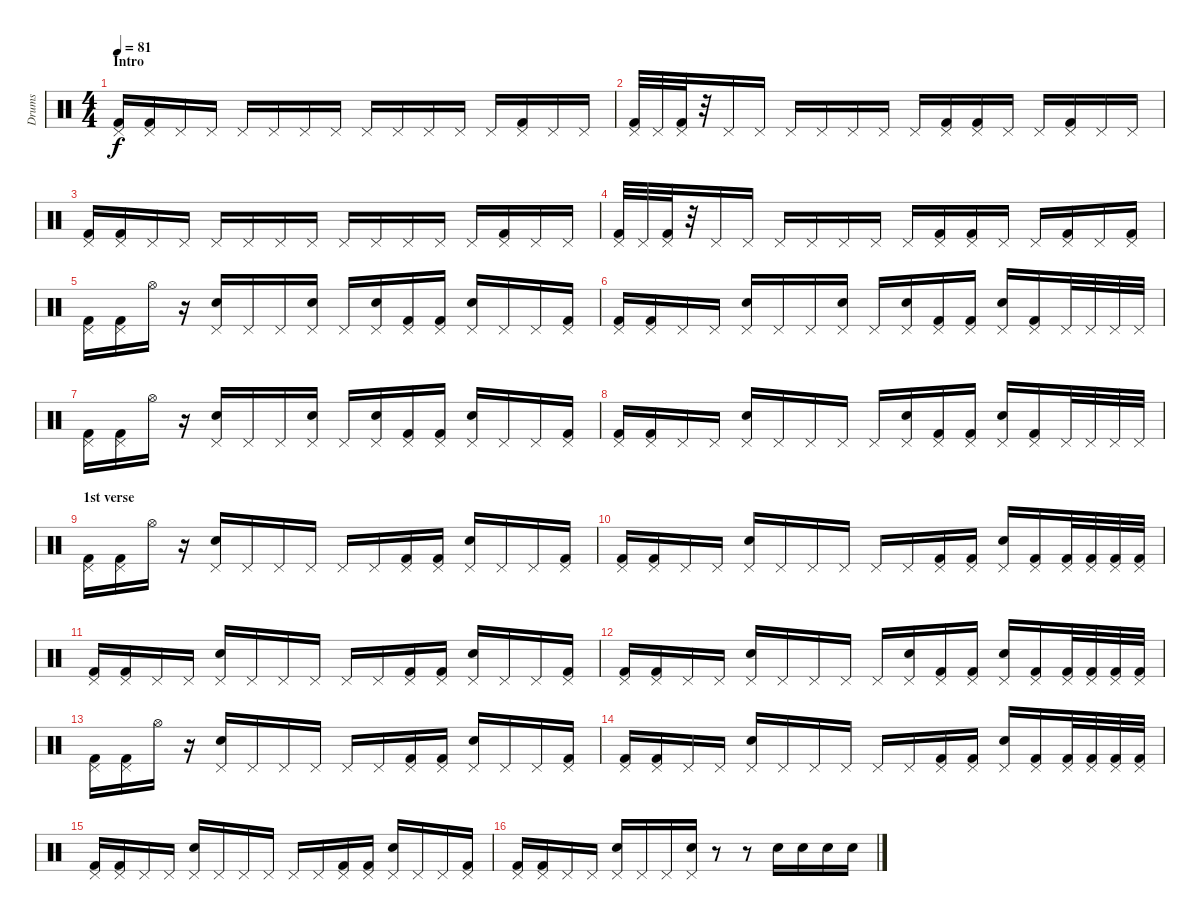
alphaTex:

\track ("Drums" "Drums") {instrument percussion}
\staff {score}
\articulation defaults
\ts (4 4)
\section ("" "Intro")
\tempo 81
\clef neutral
\ks c
("Kick (hit) 2" "Pedal Hi-Hat (hit)").16{dy f} ("Kick (hit) 2" "Pedal Hi-Hat (hit)").16 "Pedal Hi-Hat (hit)".16 "Pedal Hi-Hat (hit)".16 "Pedal Hi-Hat (hit)".16 "Pedal Hi-Hat (hit)".16 "Pedal Hi-Hat (hit)".16 "Pedal Hi-Hat (hit)".16 "Pedal Hi-Hat (hit)".16 "Pedal Hi-Hat (hit)".16 "Pedal Hi-Hat (hit)".16 "Pedal Hi-Hat (hit)".16 "Pedal Hi-Hat (hit)".16 ("Kick (hit) 2" "Pedal Hi-Hat (hit)").16 "Pedal Hi-Hat (hit)".16 "Pedal Hi-Hat (hit)".16 |
("Kick (hit) 2" "Pedal Hi-Hat (hit)").32 "Pedal Hi-Hat (hit)".32 ("Kick (hit) 2" "Pedal Hi-Hat (hit)").32 r.32 "Pedal Hi-Hat (hit)".16 "Pedal Hi-Hat (hit)".16 "Pedal Hi-Hat (hit)".16 "Pedal Hi-Hat (hit)".16 "Pedal Hi-Hat (hit)".16 "Pedal Hi-Hat (hit)".16 "Pedal Hi-Hat (hit)".16 ("Kick (hit) 2" "Pedal Hi-Hat (hit)").16 ("Kick (hit) 2" "Pedal Hi-Hat (hit)").16 "Pedal Hi-Hat (hit)".16 "Pedal Hi-Hat (hit)".16 ("Kick (hit) 2" "Pedal Hi-Hat (hit)").16 "Pedal Hi-Hat (hit)".16 "Pedal Hi-Hat (hit)".16 |
("Kick (hit) 2" "Pedal Hi-Hat (hit)").16 ("Kick (hit) 2" "Pedal Hi-Hat (hit)").16 "Pedal Hi-Hat (hit)".16 "Pedal Hi-Hat (hit)".16 "Pedal Hi-Hat (hit)".16 "Pedal Hi-Hat (hit)".16 "Pedal Hi-Hat (hit)".16 "Pedal Hi-Hat (hit)".16 "Pedal Hi-Hat (hit)".16 "Pedal Hi-Hat (hit)".16 "Pedal Hi-Hat (hit)".16 "Pedal Hi-Hat (hit)".16 "Pedal Hi-Hat (hit)".16 ("Kick (hit) 2" "Pedal Hi-Hat (hit)").16 "Pedal Hi-Hat (hit)".16 "Pedal Hi-Hat (hit)".16 |
("Kick (hit) 2" "Pedal Hi-Hat (hit)").32 "Pedal Hi-Hat (hit)".32 ("Kick (hit) 2" "Pedal Hi-Hat (hit)").32 r.32 "Pedal Hi-Hat (hit)".16 "Pedal Hi-Hat (hit)".16 "Pedal Hi-Hat (hit)".16 "Pedal Hi-Hat (hit)".16 "Pedal Hi-Hat (hit)".16 "Pedal Hi-Hat (hit)".16 "Pedal Hi-Hat (hit)".16 ("Kick (hit) 2" "Pedal Hi-Hat (hit)").16 ("Kick (hit) 2" "Pedal Hi-Hat (hit)").16 "Pedal Hi-Hat (hit)".16 "Pedal Hi-Hat (hit)".16 ("Kick (hit) 2" "Pedal Hi-Hat (hit)").16 "Pedal Hi-Hat (hit)".16 ("Kick (hit) 2" "Pedal Hi-Hat (hit)").16 |
("Kick (hit) 2" "Pedal Hi-Hat (hit)").16 ("Kick (hit) 2" "Pedal Hi-Hat (hit)").16 "Hi-Hat (open)".16 r.16 ("Snare (hit) 2" "Pedal Hi-Hat (hit)").16 "Pedal Hi-Hat (hit)".16 "Pedal Hi-Hat (hit)".16 ("Snare (hit) 2" "Pedal Hi-Hat (hit)").16 "Pedal Hi-Hat (hit)".16 ("Snare (hit) 2" "Pedal Hi-Hat (hit)").16 ("Kick (hit) 2" "Pedal Hi-Hat (hit)").16 ("Kick (hit) 2" "Pedal Hi-Hat (hit)").16 ("Snare (hit) 2" "Pedal Hi-Hat (hit)").16 "Pedal Hi-Hat (hit)".16 "Pedal Hi-Hat (hit)".16 ("Kick (hit) 2" "Pedal Hi-Hat (hit)").16 |
("Kick (hit) 2" "Pedal Hi-Hat (hit)").16 ("Kick (hit) 2" "Pedal Hi-Hat (hit)").16 "Pedal Hi-Hat (hit)".16 "Pedal Hi-Hat (hit)".16 ("Snare (hit) 2" "Pedal Hi-Hat (hit)").16 "Pedal Hi-Hat (hit)".16 "Pedal Hi-Hat (hit)".16 ("Snare (hit) 2" "Pedal Hi-Hat (hit)").16 "Pedal Hi-Hat (hit)".16 ("Snare (hit) 2" "Pedal Hi-Hat (hit)").16 ("Kick (hit) 2" "Pedal Hi-Hat (hit)").16 ("Kick (hit) 2" "Pedal Hi-Hat (hit)").16 ("Snare (hit) 2" "Pedal Hi-Hat (hit)").16 ("Kick (hit) 2" "Pedal Hi-Hat (hit)").16 "Pedal Hi-Hat (hit)".32 "Pedal Hi-Hat (hit)".32 "Pedal Hi-Hat (hit)".32 "Pedal Hi-Hat (hit)".32 |
("Kick (hit) 2" "Pedal Hi-Hat (hit)").16 ("Kick (hit) 2" "Pedal Hi-Hat (hit)").16 "Hi-Hat (open)".16 r.16 ("Snare (hit) 2" "Pedal Hi-Hat (hit)").16 "Pedal Hi-Hat (hit)".16 "Pedal Hi-Hat (hit)".16 ("Snare (hit) 2" "Pedal Hi-Hat (hit)").16 "Pedal Hi-Hat (hit)".16 ("Snare (hit) 2" "Pedal Hi-Hat (hit)").16 ("Kick (hit) 2" "Pedal Hi-Hat (hit)").16 ("Kick (hit) 2" "Pedal Hi-Hat (hit)").16 ("Snare (hit) 2" "Pedal Hi-Hat (hit)").16 "Pedal Hi-Hat (hit)".16 "Pedal Hi-Hat (hit)".16 ("Kick (hit) 2" "Pedal Hi-Hat (hit)").16 |
("Kick (hit) 2" "Pedal Hi-Hat (hit)").16 ("Kick (hit) 2" "Pedal Hi-Hat (hit)").16 "Pedal Hi-Hat (hit)".16 "Pedal Hi-Hat (hit)".16 ("Snare (hit) 2" "Pedal Hi-Hat (hit)").16 "Pedal Hi-Hat (hit)".16 "Pedal Hi-Hat (hit)".16 "Pedal Hi-Hat (hit)".16 "Pedal Hi-Hat (hit)".16 ("Snare (hit) 2" "Pedal Hi-Hat (hit)").16 ("Kick (hit) 2" "Pedal Hi-Hat (hit)").16 ("Kick (hit) 2" "Pedal Hi-Hat (hit)").16 ("Snare (hit) 2" "Pedal Hi-Hat (hit)").16 ("Kick (hit) 2" "Pedal Hi-Hat (hit)").16 "Pedal Hi-Hat (hit)".32 "Pedal Hi-Hat (hit)".32 "Pedal Hi-Hat (hit)".32 "Pedal Hi-Hat (hit)".32 |
\section ("" "1st verse")
("Kick (hit) 2" "Pedal Hi-Hat (hit)").16 ("Kick (hit) 2" "Pedal Hi-Hat (hit)").16 "Hi-Hat (open)".16 r.16 ("Snare (hit) 2" "Pedal Hi-Hat (hit)").16 "Pedal Hi-Hat (hit)".16 "Pedal Hi-Hat (hit)".16 "Pedal Hi-Hat (hit)".16 "Pedal Hi-Hat (hit)".16 "Pedal Hi-Hat (hit)".16 ("Kick (hit) 2" "Pedal Hi-Hat (hit)").16 ("Kick (hit) 2" "Pedal Hi-Hat (hit)").16 ("Snare (hit) 2" "Pedal Hi-Hat (hit)").16 "Pedal Hi-Hat (hit)".16 "Pedal Hi-Hat (hit)".16 ("Kick (hit) 2" "Pedal Hi-Hat (hit)").16 |
("Kick (hit) 2" "Pedal Hi-Hat (hit)").16 ("Kick (hit) 2" "Pedal Hi-Hat (hit)").16 "Pedal Hi-Hat (hit)".16 "Pedal Hi-Hat (hit)".16 ("Snare (hit) 2" "Pedal Hi-Hat (hit)").16 "Pedal Hi-Hat (hit)".16 "Pedal Hi-Hat (hit)".16 "Pedal Hi-Hat (hit)".16 "Pedal Hi-Hat (hit)".16 "Pedal Hi-Hat (hit)".16 ("Kick (hit) 2" "Pedal Hi-Hat (hit)").16 ("Kick (hit) 2" "Pedal Hi-Hat (hit)").16 ("Snare (hit) 2" "Pedal Hi-Hat (hit)").16 ("Kick (hit) 2" "Pedal Hi-Hat (hit)").16 ("Kick (hit) 2" "Pedal Hi-Hat (hit)").32 ("Kick (hit) 2" "Pedal Hi-Hat (hit)").32 ("Kick (hit) 2" "Pedal Hi-Hat (hit)").32 ("Kick (hit) 2" "Pedal Hi-Hat (hit)").32 |
("Kick (hit) 2" "Pedal Hi-Hat (hit)").16 ("Kick (hit) 2" "Pedal Hi-Hat (hit)").16 "Pedal Hi-Hat (hit)".16 "Pedal Hi-Hat (hit)".16 ("Snare (hit) 2" "Pedal Hi-Hat (hit)").16 "Pedal Hi-Hat (hit)".16 "Pedal Hi-Hat (hit)".16 "Pedal Hi-Hat (hit)".16 "Pedal Hi-Hat (hit)".16 "Pedal Hi-Hat (hit)".16 ("Kick (hit) 2" "Pedal Hi-Hat (hit)").16 ("Kick (hit) 2" "Pedal Hi-Hat (hit)").16 ("Snare (hit) 2" "Pedal Hi-Hat (hit)").16 "Pedal Hi-Hat (hit)".16 "Pedal Hi-Hat (hit)".16 ("Kick (hit) 2" "Pedal Hi-Hat (hit)").16 |
("Kick (hit) 2" "Pedal Hi-Hat (hit)").16 ("Kick (hit) 2" "Pedal Hi-Hat (hit)").16 "Pedal Hi-Hat (hit)".16 "Pedal Hi-Hat (hit)".16 ("Snare (hit) 2" "Pedal Hi-Hat (hit)").16 "Pedal Hi-Hat (hit)".16 "Pedal Hi-Hat (hit)".16 "Pedal Hi-Hat (hit)".16 "Pedal Hi-Hat (hit)".16 ("Snare (hit) 2" "Pedal Hi-Hat (hit)").16 ("Kick (hit) 2" "Pedal Hi-Hat (hit)").16 ("Kick (hit) 2" "Pedal Hi-Hat (hit)").16 ("Snare (hit) 2" "Pedal Hi-Hat (hit)").16 ("Kick (hit) 2" "Pedal Hi-Hat (hit)").16 ("Kick (hit) 2" "Pedal Hi-Hat (hit)").32 ("Kick (hit) 2" "Pedal Hi-Hat (hit)").32 ("Kick (hit) 2" "Pedal Hi-Hat (hit)").32 ("Kick (hit) 2" "Pedal Hi-Hat (hit)").32 |
("Kick (hit) 2" "Pedal Hi-Hat (hit)").16 ("Kick (hit) 2" "Pedal Hi-Hat (hit)").16 "Hi-Hat (open)".16 r.16 ("Snare (hit) 2" "Pedal Hi-Hat (hit)").16 "Pedal Hi-Hat (hit)".16 "Pedal Hi-Hat (hit)".16 "Pedal Hi-Hat (hit)".16 "Pedal Hi-Hat (hit)".16 "Pedal Hi-Hat (hit)".16 ("Kick (hit) 2" "Pedal Hi-Hat (hit)").16 ("Kick (hit) 2" "Pedal Hi-Hat (hit)").16 ("Snare (hit) 2" "Pedal Hi-Hat (hit)").16 "Pedal Hi-Hat (hit)".16 "Pedal Hi-Hat (hit)".16 ("Kick (hit) 2" "Pedal Hi-Hat (hit)").16 |
("Kick (hit) 2" "Pedal Hi-Hat (hit)").16 ("Kick (hit) 2" "Pedal Hi-Hat (hit)").16 "Pedal Hi-Hat (hit)".16 "Pedal Hi-Hat (hit)".16 ("Snare (hit) 2" "Pedal Hi-Hat (hit)").16 "Pedal Hi-Hat (hit)".16 "Pedal Hi-Hat (hit)".16 "Pedal Hi-Hat (hit)".16 "Pedal Hi-Hat (hit)".16 "Pedal Hi-Hat (hit)".16 ("Kick (hit) 2" "Pedal Hi-Hat (hit)").16 ("Kick (hit) 2" "Pedal Hi-Hat (hit)").16 ("Snare (hit) 2" "Pedal Hi-Hat (hit)").16 ("Kick (hit) 2" "Pedal Hi-Hat (hit)").16 ("Kick (hit) 2" "Pedal Hi-Hat (hit)").32 ("Kick (hit) 2" "Pedal Hi-Hat (hit)").32 ("Kick (hit) 2" "Pedal Hi-Hat (hit)").32 ("Kick (hit) 2" "Pedal Hi-Hat (hit)").32 |
("Kick (hit) 2" "Pedal Hi-Hat (hit)").16 ("Kick (hit) 2" "Pedal Hi-Hat (hit)").16 "Pedal Hi-Hat (hit)".16 "Pedal Hi-Hat (hit)".16 ("Snare (hit) 2" "Pedal Hi-Hat (hit)").16 "Pedal Hi-Hat (hit)".16 "Pedal Hi-Hat (hit)".16 "Pedal Hi-Hat (hit)".16 "Pedal Hi-Hat (hit)".16 "Pedal Hi-Hat (hit)".16 ("Kick (hit) 2" "Pedal Hi-Hat (hit)").16 ("Kick (hit) 2" "Pedal Hi-Hat (hit)").16 ("Snare (hit) 2" "Pedal Hi-Hat (hit)").16 "Pedal Hi-Hat (hit)".16 "Pedal Hi-Hat (hit)".16 ("Kick (hit) 2" "Pedal Hi-Hat (hit)").16 |
("Kick (hit) 2" "Pedal Hi-Hat (hit)").16 ("Kick (hit) 2" "Pedal Hi-Hat (hit)").16 "Pedal Hi-Hat (hit)".16 "Pedal Hi-Hat (hit)".16 ("Snare (hit) 2" "Pedal Hi-Hat (hit)").16 "Pedal Hi-Hat (hit)".16 "Pedal Hi-Hat (hit)".16 ("Snare (hit) 2" "Pedal Hi-Hat (hit)").16 r.8 r.8 "Snare (hit) 2".16 "Snare (hit) 2".16 "Snare (hit) 2".16 "Snare (hit) 2".16
